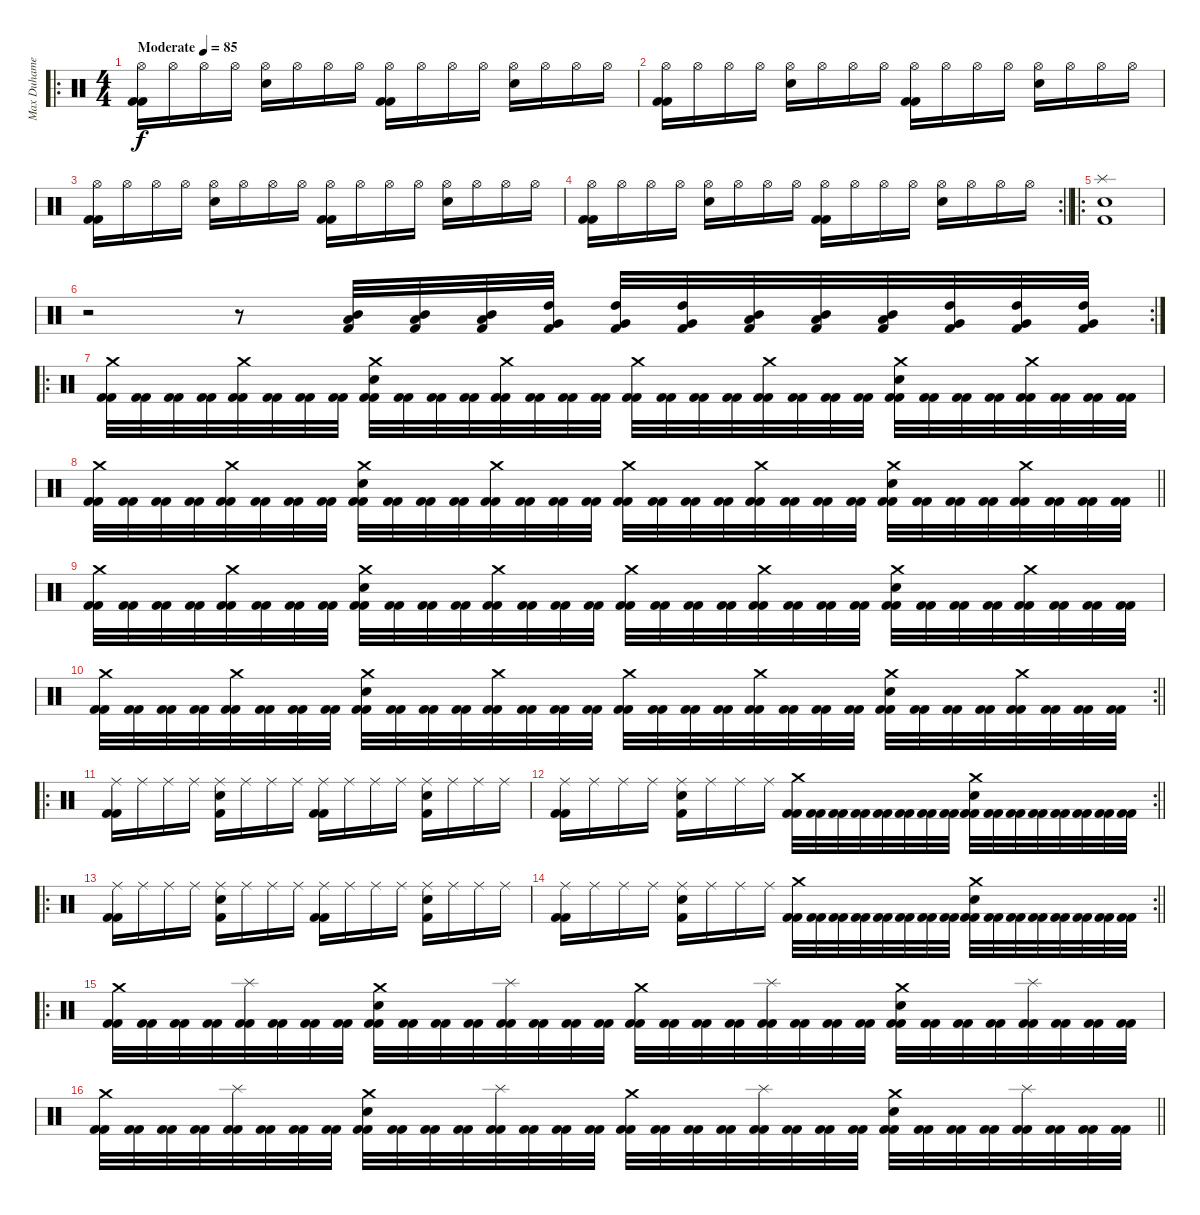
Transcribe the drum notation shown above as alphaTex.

\track ("Max Duhamel" "Max Duhame") {instrument percussion}
\staff {score}
\articulation defaults
\ro
\ts (4 4)
\tempo (85 "Moderate")
\clef neutral
\ks c
("Kick (hit) 2" "Kick (hit) 2" "Hi-Hat (open)").16{dy f} "Hi-Hat (open)".16 "Hi-Hat (open)".16 "Hi-Hat (open)".16 ("Snare (hit) 2" "Hi-Hat (open)").16 "Hi-Hat (open)".16 "Hi-Hat (open)".16 "Hi-Hat (open)".16 ("Kick (hit) 2" "Kick (hit) 2" "Hi-Hat (open)").16 "Hi-Hat (open)".16 "Hi-Hat (open)".16 "Hi-Hat (open)".16 ("Snare (hit) 2" "Hi-Hat (open)").16 "Hi-Hat (open)".16 "Hi-Hat (open)".16 "Hi-Hat (open)".16 |
("Kick (hit) 2" "Kick (hit) 2" "Hi-Hat (open)").16 "Hi-Hat (open)".16 "Hi-Hat (open)".16 "Hi-Hat (open)".16 ("Snare (hit) 2" "Hi-Hat (open)").16 "Hi-Hat (open)".16 "Hi-Hat (open)".16 "Hi-Hat (open)".16 ("Kick (hit) 2" "Kick (hit) 2" "Hi-Hat (open)").16 "Hi-Hat (open)".16 "Hi-Hat (open)".16 "Hi-Hat (open)".16 ("Snare (hit) 2" "Hi-Hat (open)").16 "Hi-Hat (open)".16 "Hi-Hat (open)".16 "Hi-Hat (open)".16 |
("Kick (hit) 2" "Kick (hit) 2" "Hi-Hat (open)").16 "Hi-Hat (open)".16 "Hi-Hat (open)".16 "Hi-Hat (open)".16 ("Snare (hit) 2" "Hi-Hat (open)").16 "Hi-Hat (open)".16 "Hi-Hat (open)".16 "Hi-Hat (open)".16 ("Kick (hit) 2" "Kick (hit) 2" "Hi-Hat (open)").16 "Hi-Hat (open)".16 "Hi-Hat (open)".16 "Hi-Hat (open)".16 ("Snare (hit) 2" "Hi-Hat (open)").16 "Hi-Hat (open)".16 "Hi-Hat (open)".16 "Hi-Hat (open)".16 |
\rc 2
\barLineRight lightlight
("Kick (hit) 2" "Kick (hit) 2" "Hi-Hat (open)").16 "Hi-Hat (open)".16 "Hi-Hat (open)".16 "Hi-Hat (open)".16 ("Snare (hit) 2" "Hi-Hat (open)").16 "Hi-Hat (open)".16 "Hi-Hat (open)".16 "Hi-Hat (open)".16 ("Kick (hit) 2" "Kick (hit) 2" "Hi-Hat (open)").16 "Hi-Hat (open)".16 "Hi-Hat (open)".16 "Hi-Hat (open)".16 ("Snare (hit) 2" "Hi-Hat (open)").16 "Hi-Hat (open)".16 "Hi-Hat (open)".16 "Hi-Hat (open)".16 |
\ro
("Kick (hit) 2" "Splash (hit)" "Snare (hit) 2").1 |
\rc 2
r.2 r.8 ("Kick (hit) 2" "Mid Tom (hit)" "Low Tom (hit)").32 ("Kick (hit) 2" "Mid Tom (hit)" "Low Tom (hit)").32 ("Kick (hit) 2" "Mid Tom (hit)" "Low Tom (hit)").32 ("Kick (hit) 2" "High Tom (hit)" "Very Low Tom (hit)").32 ("Kick (hit) 2" "High Tom (hit)" "Very Low Tom (hit)").32 ("Kick (hit) 2" "High Tom (hit)" "Very Low Tom (hit)").32 ("Kick (hit) 2" "Low Tom (hit)" "Mid Tom (hit)").32 ("Kick (hit) 2" "Low Tom (hit)" "Mid Tom (hit)").32 ("Kick (hit) 2" "Low Tom (hit)" "Mid Tom (hit)").32 ("Kick (hit) 2" "Very Low Tom (hit)" "High Tom (hit)").32 ("Kick (hit) 2" "Very Low Tom (hit)" "High Tom (hit)").32 ("Kick (hit) 2" "Very Low Tom (hit)" "High Tom (hit)").32 |
\ro
("Crash medium (hit)" "Kick (hit) 2" "Kick (hit) 2").32 ("Kick (hit) 2" "Kick (hit) 2").32 ("Kick (hit) 2" "Kick (hit) 2").32 ("Kick (hit) 2" "Kick (hit) 2").32 ("Crash medium (hit)" "Kick (hit) 2" "Kick (hit) 2").32 ("Kick (hit) 2" "Kick (hit) 2").32 ("Kick (hit) 2" "Kick (hit) 2").32 ("Kick (hit) 2" "Kick (hit) 2").32 ("Snare (hit) 2" "Crash medium (hit)" "Kick (hit) 2" "Kick (hit) 2").32 ("Kick (hit) 2" "Kick (hit) 2").32 ("Kick (hit) 2" "Kick (hit) 2").32 ("Kick (hit) 2" "Kick (hit) 2").32 ("Crash medium (hit)" "Kick (hit) 2" "Kick (hit) 2").32 ("Kick (hit) 2" "Kick (hit) 2").32 ("Kick (hit) 2" "Kick (hit) 2").32 ("Kick (hit) 2" "Kick (hit) 2").32 ("Crash medium (hit)" "Kick (hit) 2" "Kick (hit) 2").32 ("Kick (hit) 2" "Kick (hit) 2").32 ("Kick (hit) 2" "Kick (hit) 2").32 ("Kick (hit) 2" "Kick (hit) 2").32 ("Crash medium (hit)" "Kick (hit) 2" "Kick (hit) 2").32 ("Kick (hit) 2" "Kick (hit) 2").32 ("Kick (hit) 2" "Kick (hit) 2").32 ("Kick (hit) 2" "Kick (hit) 2").32 ("Snare (hit) 2" "Crash medium (hit)" "Kick (hit) 2" "Kick (hit) 2").32 ("Kick (hit) 2" "Kick (hit) 2").32 ("Kick (hit) 2" "Kick (hit) 2").32 ("Kick (hit) 2" "Kick (hit) 2").32 ("Crash medium (hit)" "Kick (hit) 2" "Kick (hit) 2").32 ("Kick (hit) 2" "Kick (hit) 2").32 ("Kick (hit) 2" "Kick (hit) 2").32 ("Kick (hit) 2" "Kick (hit) 2").32 |
\barLineRight lightlight
("Crash medium (hit)" "Kick (hit) 2" "Kick (hit) 2").32 ("Kick (hit) 2" "Kick (hit) 2").32 ("Kick (hit) 2" "Kick (hit) 2").32 ("Kick (hit) 2" "Kick (hit) 2").32 ("Crash medium (hit)" "Kick (hit) 2" "Kick (hit) 2").32 ("Kick (hit) 2" "Kick (hit) 2").32 ("Kick (hit) 2" "Kick (hit) 2").32 ("Kick (hit) 2" "Kick (hit) 2").32 ("Snare (hit) 2" "Crash medium (hit)" "Kick (hit) 2" "Kick (hit) 2").32 ("Kick (hit) 2" "Kick (hit) 2").32 ("Kick (hit) 2" "Kick (hit) 2").32 ("Kick (hit) 2" "Kick (hit) 2").32 ("Crash medium (hit)" "Kick (hit) 2" "Kick (hit) 2").32 ("Kick (hit) 2" "Kick (hit) 2").32 ("Kick (hit) 2" "Kick (hit) 2").32 ("Kick (hit) 2" "Kick (hit) 2").32 ("Crash medium (hit)" "Kick (hit) 2" "Kick (hit) 2").32 ("Kick (hit) 2" "Kick (hit) 2").32 ("Kick (hit) 2" "Kick (hit) 2").32 ("Kick (hit) 2" "Kick (hit) 2").32 ("Crash medium (hit)" "Kick (hit) 2" "Kick (hit) 2").32 ("Kick (hit) 2" "Kick (hit) 2").32 ("Kick (hit) 2" "Kick (hit) 2").32 ("Kick (hit) 2" "Kick (hit) 2").32 ("Snare (hit) 2" "Crash medium (hit)" "Kick (hit) 2" "Kick (hit) 2").32 ("Kick (hit) 2" "Kick (hit) 2").32 ("Kick (hit) 2" "Kick (hit) 2").32 ("Kick (hit) 2" "Kick (hit) 2").32 ("Crash medium (hit)" "Kick (hit) 2" "Kick (hit) 2").32 ("Kick (hit) 2" "Kick (hit) 2").32 ("Kick (hit) 2" "Kick (hit) 2").32 ("Kick (hit) 2" "Kick (hit) 2").32 |
("Crash medium (hit)" "Kick (hit) 2" "Kick (hit) 2").32 ("Kick (hit) 2" "Kick (hit) 2").32 ("Kick (hit) 2" "Kick (hit) 2").32 ("Kick (hit) 2" "Kick (hit) 2").32 ("Crash medium (hit)" "Kick (hit) 2" "Kick (hit) 2").32 ("Kick (hit) 2" "Kick (hit) 2").32 ("Kick (hit) 2" "Kick (hit) 2").32 ("Kick (hit) 2" "Kick (hit) 2").32 ("Snare (hit) 2" "Crash medium (hit)" "Kick (hit) 2" "Kick (hit) 2").32 ("Kick (hit) 2" "Kick (hit) 2").32 ("Kick (hit) 2" "Kick (hit) 2").32 ("Kick (hit) 2" "Kick (hit) 2").32 ("Crash medium (hit)" "Kick (hit) 2" "Kick (hit) 2").32 ("Kick (hit) 2" "Kick (hit) 2").32 ("Kick (hit) 2" "Kick (hit) 2").32 ("Kick (hit) 2" "Kick (hit) 2").32 ("Crash medium (hit)" "Kick (hit) 2" "Kick (hit) 2").32 ("Kick (hit) 2" "Kick (hit) 2").32 ("Kick (hit) 2" "Kick (hit) 2").32 ("Kick (hit) 2" "Kick (hit) 2").32 ("Crash medium (hit)" "Kick (hit) 2" "Kick (hit) 2").32 ("Kick (hit) 2" "Kick (hit) 2").32 ("Kick (hit) 2" "Kick (hit) 2").32 ("Kick (hit) 2" "Kick (hit) 2").32 ("Snare (hit) 2" "Crash medium (hit)" "Kick (hit) 2" "Kick (hit) 2").32 ("Kick (hit) 2" "Kick (hit) 2").32 ("Kick (hit) 2" "Kick (hit) 2").32 ("Kick (hit) 2" "Kick (hit) 2").32 ("Crash medium (hit)" "Kick (hit) 2" "Kick (hit) 2").32 ("Kick (hit) 2" "Kick (hit) 2").32 ("Kick (hit) 2" "Kick (hit) 2").32 ("Kick (hit) 2" "Kick (hit) 2").32 |
\rc 2
\barLineRight lightlight
("Crash medium (hit)" "Kick (hit) 2" "Kick (hit) 2").32 ("Kick (hit) 2" "Kick (hit) 2").32 ("Kick (hit) 2" "Kick (hit) 2").32 ("Kick (hit) 2" "Kick (hit) 2").32 ("Crash medium (hit)" "Kick (hit) 2" "Kick (hit) 2").32 ("Kick (hit) 2" "Kick (hit) 2").32 ("Kick (hit) 2" "Kick (hit) 2").32 ("Kick (hit) 2" "Kick (hit) 2").32 ("Snare (hit) 2" "Crash medium (hit)" "Kick (hit) 2" "Kick (hit) 2").32 ("Kick (hit) 2" "Kick (hit) 2").32 ("Kick (hit) 2" "Kick (hit) 2").32 ("Kick (hit) 2" "Kick (hit) 2").32 ("Crash medium (hit)" "Kick (hit) 2" "Kick (hit) 2").32 ("Kick (hit) 2" "Kick (hit) 2").32 ("Kick (hit) 2" "Kick (hit) 2").32 ("Kick (hit) 2" "Kick (hit) 2").32 ("Crash medium (hit)" "Kick (hit) 2" "Kick (hit) 2").32 ("Kick (hit) 2" "Kick (hit) 2").32 ("Kick (hit) 2" "Kick (hit) 2").32 ("Kick (hit) 2" "Kick (hit) 2").32 ("Crash medium (hit)" "Kick (hit) 2" "Kick (hit) 2").32 ("Kick (hit) 2" "Kick (hit) 2").32 ("Kick (hit) 2" "Kick (hit) 2").32 ("Kick (hit) 2" "Kick (hit) 2").32 ("Snare (hit) 2" "Crash medium (hit)" "Kick (hit) 2" "Kick (hit) 2").32 ("Kick (hit) 2" "Kick (hit) 2").32 ("Kick (hit) 2" "Kick (hit) 2").32 ("Kick (hit) 2" "Kick (hit) 2").32 ("Crash medium (hit)" "Kick (hit) 2" "Kick (hit) 2").32 ("Kick (hit) 2" "Kick (hit) 2").32 ("Kick (hit) 2" "Kick (hit) 2").32 ("Kick (hit) 2" "Kick (hit) 2").32 |
\ro
("Kick (hit) 2" "Kick (hit) 2" "Ride (middle)").16 "Ride (middle)".16 "Ride (middle)".16 "Ride (middle)".16 ("Snare (hit) 2" "Kick (hit) 2" "Ride (middle)").16 "Ride (middle)".16 "Ride (middle)".16 "Ride (middle)".16 ("Kick (hit) 2" "Kick (hit) 2" "Ride (middle)").16 "Ride (middle)".16 "Ride (middle)".16 "Ride (middle)".16 ("Snare (hit) 2" "Kick (hit) 2" "Ride (middle)").16 "Ride (middle)".16 "Ride (middle)".16 "Ride (middle)".16 |
\rc 2
\barLineRight lightlight
("Kick (hit) 2" "Kick (hit) 2" "Ride (middle)").16 "Ride (middle)".16 "Ride (middle)".16 "Ride (middle)".16 ("Snare (hit) 2" "Kick (hit) 2" "Ride (middle)").16 "Ride (middle)".16 "Ride (middle)".16 "Ride (middle)".16 ("Crash medium (hit)" "Kick (hit) 2" "Kick (hit) 2").32 ("Kick (hit) 2" "Kick (hit) 2").32 ("Kick (hit) 2" "Kick (hit) 2").32 ("Kick (hit) 2" "Kick (hit) 2").32 ("Kick (hit) 2" "Kick (hit) 2").32 ("Kick (hit) 2" "Kick (hit) 2").32 ("Kick (hit) 2" "Kick (hit) 2").32 ("Kick (hit) 2" "Kick (hit) 2").32 ("Crash medium (hit)" "Snare (hit) 2" "Kick (hit) 2" "Kick (hit) 2").32 ("Kick (hit) 2" "Kick (hit) 2").32 ("Kick (hit) 2" "Kick (hit) 2").32 ("Kick (hit) 2" "Kick (hit) 2").32 ("Kick (hit) 2" "Kick (hit) 2").32 ("Kick (hit) 2" "Kick (hit) 2").32 ("Kick (hit) 2" "Kick (hit) 2").32 ("Kick (hit) 2" "Kick (hit) 2").32 |
\ro
("Kick (hit) 2" "Kick (hit) 2" "Ride (middle)").16 "Ride (middle)".16 "Ride (middle)".16 "Ride (middle)".16 ("Snare (hit) 2" "Kick (hit) 2" "Ride (middle)").16 "Ride (middle)".16 "Ride (middle)".16 "Ride (middle)".16 ("Kick (hit) 2" "Kick (hit) 2" "Ride (middle)").16 "Ride (middle)".16 "Ride (middle)".16 "Ride (middle)".16 ("Snare (hit) 2" "Kick (hit) 2" "Ride (middle)").16 "Ride (middle)".16 "Ride (middle)".16 "Ride (middle)".16 |
\rc 2
\barLineRight lightlight
("Kick (hit) 2" "Kick (hit) 2" "Ride (middle)").16 "Ride (middle)".16 "Ride (middle)".16 "Ride (middle)".16 ("Snare (hit) 2" "Kick (hit) 2" "Ride (middle)").16 "Ride (middle)".16 "Ride (middle)".16 "Ride (middle)".16 ("Crash medium (hit)" "Kick (hit) 2" "Kick (hit) 2").32 ("Kick (hit) 2" "Kick (hit) 2").32 ("Kick (hit) 2" "Kick (hit) 2").32 ("Kick (hit) 2" "Kick (hit) 2").32 ("Kick (hit) 2" "Kick (hit) 2").32 ("Kick (hit) 2" "Kick (hit) 2").32 ("Kick (hit) 2" "Kick (hit) 2").32 ("Kick (hit) 2" "Kick (hit) 2").32 ("Crash medium (hit)" "Snare (hit) 2" "Kick (hit) 2" "Kick (hit) 2").32 ("Kick (hit) 2" "Kick (hit) 2").32 ("Kick (hit) 2" "Kick (hit) 2").32 ("Kick (hit) 2" "Kick (hit) 2").32 ("Kick (hit) 2" "Kick (hit) 2").32 ("Kick (hit) 2" "Kick (hit) 2").32 ("Kick (hit) 2" "Kick (hit) 2").32 ("Kick (hit) 2" "Kick (hit) 2").32 |
\ro
("Crash medium (hit)" "Kick (hit) 2" "Kick (hit) 2").32 ("Kick (hit) 2" "Kick (hit) 2").32 ("Kick (hit) 2" "Kick (hit) 2").32 ("Kick (hit) 2" "Kick (hit) 2").32 ("Splash (hit)" "Kick (hit) 2" "Kick (hit) 2").32 ("Kick (hit) 2" "Kick (hit) 2").32 ("Kick (hit) 2" "Kick (hit) 2").32 ("Kick (hit) 2" "Kick (hit) 2").32 ("Crash medium (hit)" "Snare (hit) 2" "Kick (hit) 2" "Kick (hit) 2").32 ("Kick (hit) 2" "Kick (hit) 2").32 ("Kick (hit) 2" "Kick (hit) 2").32 ("Kick (hit) 2" "Kick (hit) 2").32 ("Splash (hit)" "Kick (hit) 2" "Kick (hit) 2").32 ("Kick (hit) 2" "Kick (hit) 2").32 ("Kick (hit) 2" "Kick (hit) 2").32 ("Kick (hit) 2" "Kick (hit) 2").32 ("Crash medium (hit)" "Kick (hit) 2" "Kick (hit) 2").32 ("Kick (hit) 2" "Kick (hit) 2").32 ("Kick (hit) 2" "Kick (hit) 2").32 ("Kick (hit) 2" "Kick (hit) 2").32 ("Splash (hit)" "Kick (hit) 2" "Kick (hit) 2").32 ("Kick (hit) 2" "Kick (hit) 2").32 ("Kick (hit) 2" "Kick (hit) 2").32 ("Kick (hit) 2" "Kick (hit) 2").32 ("Crash medium (hit)" "Snare (hit) 2" "Kick (hit) 2" "Kick (hit) 2").32 ("Kick (hit) 2" "Kick (hit) 2").32 ("Kick (hit) 2" "Kick (hit) 2").32 ("Kick (hit) 2" "Kick (hit) 2").32 ("Splash (hit)" "Kick (hit) 2" "Kick (hit) 2").32 ("Kick (hit) 2" "Kick (hit) 2").32 ("Kick (hit) 2" "Kick (hit) 2").32 ("Kick (hit) 2" "Kick (hit) 2").32 |
\barLineRight lightlight
("Crash medium (hit)" "Kick (hit) 2" "Kick (hit) 2").32 ("Kick (hit) 2" "Kick (hit) 2").32 ("Kick (hit) 2" "Kick (hit) 2").32 ("Kick (hit) 2" "Kick (hit) 2").32 ("Splash (hit)" "Kick (hit) 2" "Kick (hit) 2").32 ("Kick (hit) 2" "Kick (hit) 2").32 ("Kick (hit) 2" "Kick (hit) 2").32 ("Kick (hit) 2" "Kick (hit) 2").32 ("Crash medium (hit)" "Snare (hit) 2" "Kick (hit) 2" "Kick (hit) 2").32 ("Kick (hit) 2" "Kick (hit) 2").32 ("Kick (hit) 2" "Kick (hit) 2").32 ("Kick (hit) 2" "Kick (hit) 2").32 ("Splash (hit)" "Kick (hit) 2" "Kick (hit) 2").32 ("Kick (hit) 2" "Kick (hit) 2").32 ("Kick (hit) 2" "Kick (hit) 2").32 ("Kick (hit) 2" "Kick (hit) 2").32 ("Crash medium (hit)" "Kick (hit) 2" "Kick (hit) 2").32 ("Kick (hit) 2" "Kick (hit) 2").32 ("Kick (hit) 2" "Kick (hit) 2").32 ("Kick (hit) 2" "Kick (hit) 2").32 ("Splash (hit)" "Kick (hit) 2" "Kick (hit) 2").32 ("Kick (hit) 2" "Kick (hit) 2").32 ("Kick (hit) 2" "Kick (hit) 2").32 ("Kick (hit) 2" "Kick (hit) 2").32 ("Crash medium (hit)" "Snare (hit) 2" "Kick (hit) 2" "Kick (hit) 2").32 ("Kick (hit) 2" "Kick (hit) 2").32 ("Kick (hit) 2" "Kick (hit) 2").32 ("Kick (hit) 2" "Kick (hit) 2").32 ("Splash (hit)" "Kick (hit) 2" "Kick (hit) 2").32 ("Kick (hit) 2" "Kick (hit) 2").32 ("Kick (hit) 2" "Kick (hit) 2").32 ("Kick (hit) 2" "Kick (hit) 2").32
